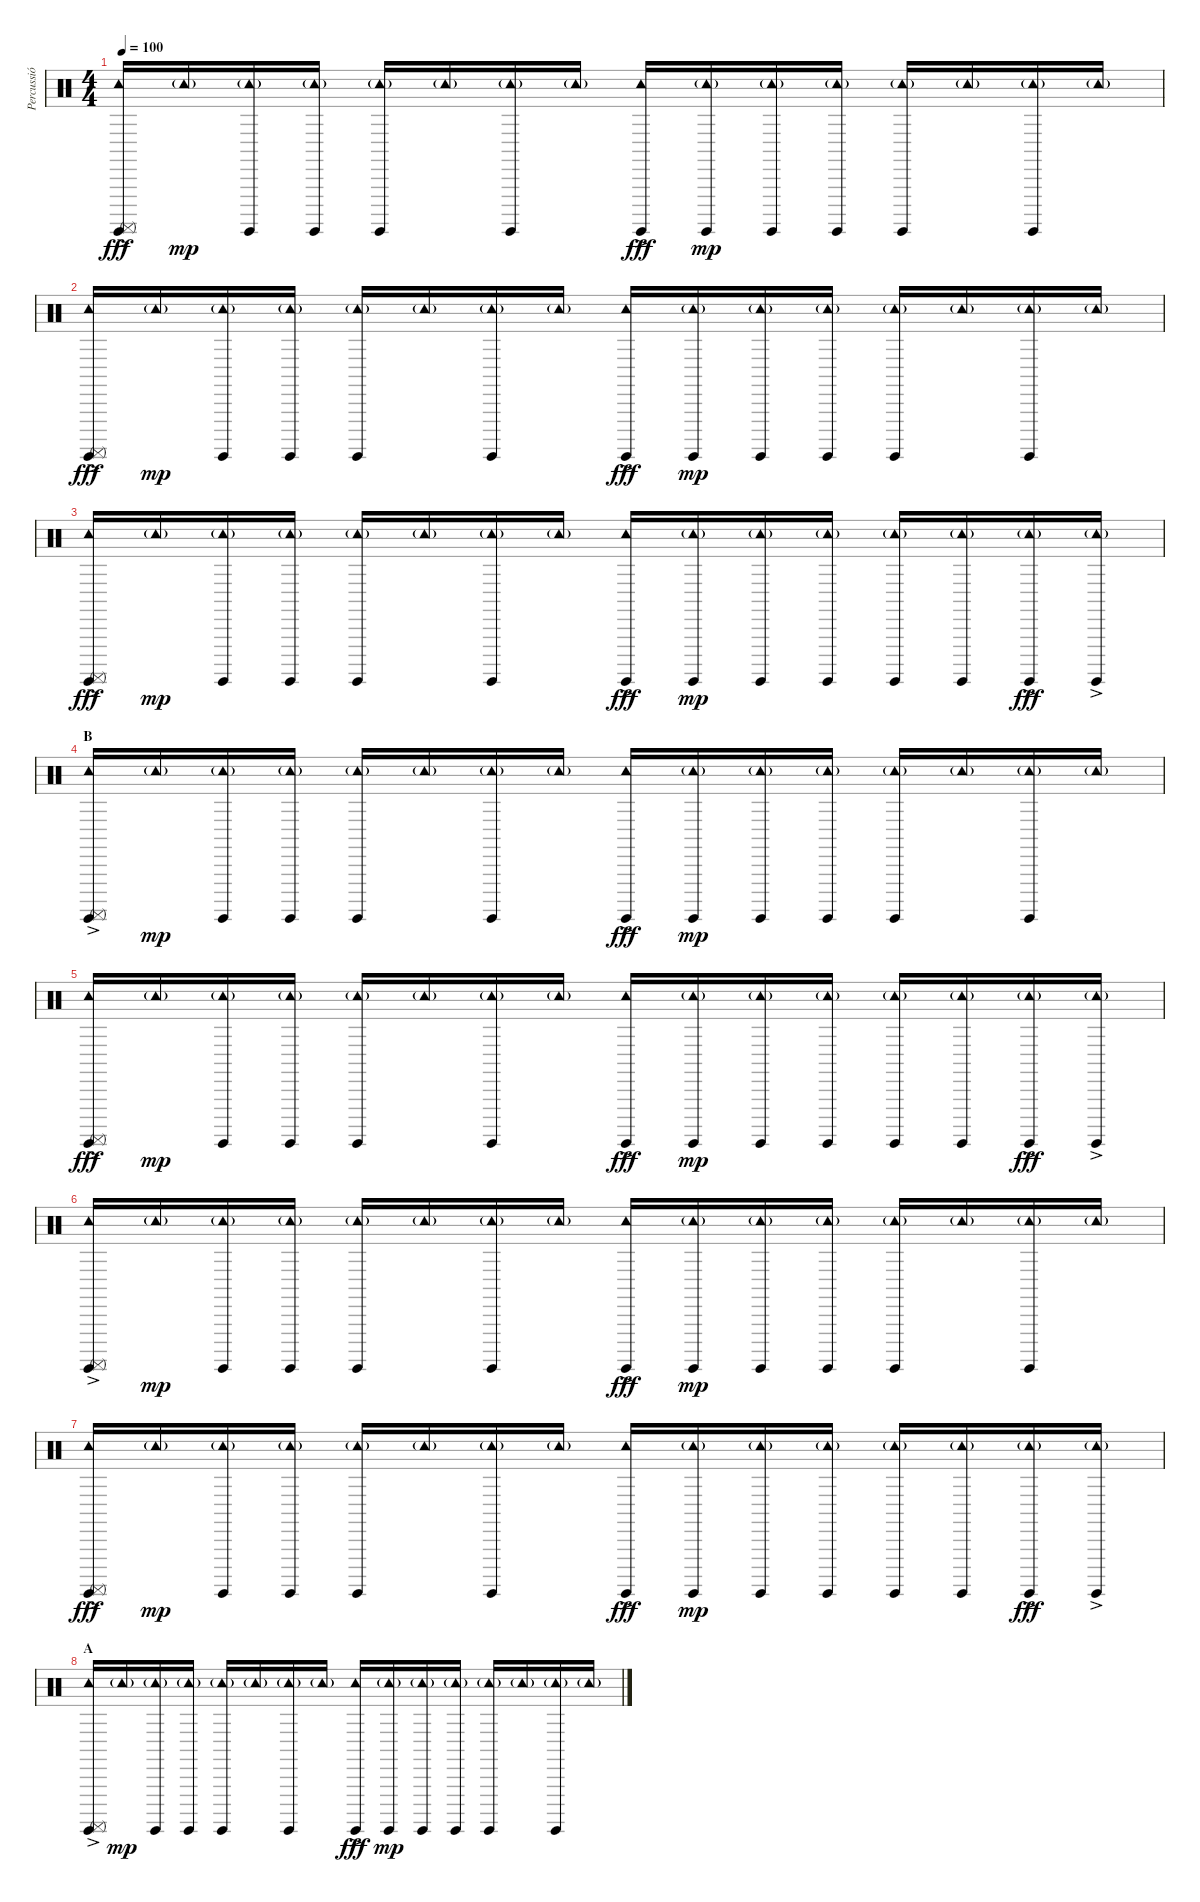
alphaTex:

\track ("Percussió" "Percussió") {instrument percussion}
\staff {score}
\articulation defaults
\ts (4 4)
\tempo 100
\clef neutral
\ks c
("Tambourine (hit)"{ac} "Surdo (hit)" "Surdo (mute)"{ac}).16{dy fff} "Tambourine (hit)"{g}.16{dy mp} ("Tambourine (hit)"{g} "Surdo (hit)").16 ("Tambourine (hit)"{g} "Surdo (hit)").16 ("Tambourine (hit)"{g} "Surdo (hit)").16 "Tambourine (hit)"{g}.16 ("Tambourine (hit)"{g} "Surdo (hit)").16 "Tambourine (hit)"{g}.16 ("Tambourine (hit)"{ac} "Surdo (hit)"{ac}).16{dy fff} ("Tambourine (hit)"{g} "Surdo (hit)").16{dy mp} ("Tambourine (hit)"{g} "Surdo (hit)").16 ("Tambourine (hit)"{g} "Surdo (hit)").16 ("Tambourine (hit)"{g} "Surdo (hit)").16 "Tambourine (hit)"{g}.16 ("Tambourine (hit)"{g} "Surdo (hit)").16 "Tambourine (hit)"{g}.16 |
("Tambourine (hit)"{ac} "Surdo (hit)" "Surdo (mute)"{ac}).16{dy fff} "Tambourine (hit)"{g}.16{dy mp} ("Tambourine (hit)"{g} "Surdo (hit)").16 ("Tambourine (hit)"{g} "Surdo (hit)").16 ("Tambourine (hit)"{g} "Surdo (hit)").16 "Tambourine (hit)"{g}.16 ("Tambourine (hit)"{g} "Surdo (hit)").16 "Tambourine (hit)"{g}.16 ("Tambourine (hit)"{ac} "Surdo (hit)"{ac}).16{dy fff} ("Tambourine (hit)"{g} "Surdo (hit)").16{dy mp} ("Tambourine (hit)"{g} "Surdo (hit)").16 ("Tambourine (hit)"{g} "Surdo (hit)").16 ("Tambourine (hit)"{g} "Surdo (hit)").16 "Tambourine (hit)"{g}.16 ("Tambourine (hit)"{g} "Surdo (hit)").16 "Tambourine (hit)"{g}.16 |
("Tambourine (hit)"{ac} "Surdo (hit)" "Surdo (mute)"{ac}).16{dy fff} "Tambourine (hit)"{g}.16{dy mp} ("Tambourine (hit)"{g} "Surdo (hit)").16 ("Tambourine (hit)"{g} "Surdo (hit)").16 ("Tambourine (hit)"{g} "Surdo (hit)").16 "Tambourine (hit)"{g}.16 ("Tambourine (hit)"{g} "Surdo (hit)").16 "Tambourine (hit)"{g}.16 ("Tambourine (hit)"{ac} "Surdo (hit)"{ac}).16{dy fff} ("Tambourine (hit)"{g} "Surdo (hit)").16{dy mp} ("Tambourine (hit)"{g} "Surdo (hit)").16 ("Tambourine (hit)"{g} "Surdo (hit)").16 ("Tambourine (hit)"{g} "Surdo (hit)").16 ("Tambourine (hit)"{g} "Surdo (hit)").16 ("Tambourine (hit)"{g} "Surdo (hit)"{ac}).16{dy fff} ("Tambourine (hit)"{g} "Surdo (hit)"{ac}).16 |
\section ("" "B")
("Tambourine (hit)"{ac} "Surdo (hit)" "Surdo (mute)"{ac}).16 "Tambourine (hit)"{g}.16{dy mp} ("Tambourine (hit)"{g} "Surdo (hit)").16 ("Tambourine (hit)"{g} "Surdo (hit)").16 ("Tambourine (hit)"{g} "Surdo (hit)").16 "Tambourine (hit)"{g}.16 ("Tambourine (hit)"{g} "Surdo (hit)").16 "Tambourine (hit)"{g}.16 ("Tambourine (hit)"{ac} "Surdo (hit)"{ac}).16{dy fff} ("Tambourine (hit)"{g} "Surdo (hit)").16{dy mp} ("Tambourine (hit)"{g} "Surdo (hit)").16 ("Tambourine (hit)"{g} "Surdo (hit)").16 ("Tambourine (hit)"{g} "Surdo (hit)").16 "Tambourine (hit)"{g}.16 ("Tambourine (hit)"{g} "Surdo (hit)").16 "Tambourine (hit)"{g}.16 |
("Tambourine (hit)"{ac} "Surdo (hit)" "Surdo (mute)"{ac}).16{dy fff} "Tambourine (hit)"{g}.16{dy mp} ("Tambourine (hit)"{g} "Surdo (hit)").16 ("Tambourine (hit)"{g} "Surdo (hit)").16 ("Tambourine (hit)"{g} "Surdo (hit)").16 "Tambourine (hit)"{g}.16 ("Tambourine (hit)"{g} "Surdo (hit)").16 "Tambourine (hit)"{g}.16 ("Tambourine (hit)"{ac} "Surdo (hit)"{ac}).16{dy fff} ("Tambourine (hit)"{g} "Surdo (hit)").16{dy mp} ("Tambourine (hit)"{g} "Surdo (hit)").16 ("Tambourine (hit)"{g} "Surdo (hit)").16 ("Tambourine (hit)"{g} "Surdo (hit)").16 ("Tambourine (hit)"{g} "Surdo (hit)").16 ("Tambourine (hit)"{g} "Surdo (hit)"{ac}).16{dy fff} ("Tambourine (hit)"{g} "Surdo (hit)"{ac}).16 |
("Tambourine (hit)"{ac} "Surdo (hit)" "Surdo (mute)"{ac}).16 "Tambourine (hit)"{g}.16{dy mp} ("Tambourine (hit)"{g} "Surdo (hit)").16 ("Tambourine (hit)"{g} "Surdo (hit)").16 ("Tambourine (hit)"{g} "Surdo (hit)").16 "Tambourine (hit)"{g}.16 ("Tambourine (hit)"{g} "Surdo (hit)").16 "Tambourine (hit)"{g}.16 ("Tambourine (hit)"{ac} "Surdo (hit)"{ac}).16{dy fff} ("Tambourine (hit)"{g} "Surdo (hit)").16{dy mp} ("Tambourine (hit)"{g} "Surdo (hit)").16 ("Tambourine (hit)"{g} "Surdo (hit)").16 ("Tambourine (hit)"{g} "Surdo (hit)").16 "Tambourine (hit)"{g}.16 ("Tambourine (hit)"{g} "Surdo (hit)").16 "Tambourine (hit)"{g}.16 |
("Tambourine (hit)"{ac} "Surdo (hit)" "Surdo (mute)"{ac}).16{dy fff} "Tambourine (hit)"{g}.16{dy mp} ("Tambourine (hit)"{g} "Surdo (hit)").16 ("Tambourine (hit)"{g} "Surdo (hit)").16 ("Tambourine (hit)"{g} "Surdo (hit)").16 "Tambourine (hit)"{g}.16 ("Tambourine (hit)"{g} "Surdo (hit)").16 "Tambourine (hit)"{g}.16 ("Tambourine (hit)"{ac} "Surdo (hit)"{ac}).16{dy fff} ("Tambourine (hit)"{g} "Surdo (hit)").16{dy mp} ("Tambourine (hit)"{g} "Surdo (hit)").16 ("Tambourine (hit)"{g} "Surdo (hit)").16 ("Tambourine (hit)"{g} "Surdo (hit)").16 ("Tambourine (hit)"{g} "Surdo (hit)").16 ("Tambourine (hit)"{g} "Surdo (hit)"{ac}).16{dy fff} ("Tambourine (hit)"{g} "Surdo (hit)"{ac}).16 |
\section ("" "A")
("Tambourine (hit)"{ac} "Surdo (hit)" "Surdo (mute)"{ac}).16 "Tambourine (hit)"{g}.16{dy mp} ("Tambourine (hit)"{g} "Surdo (hit)").16 ("Tambourine (hit)"{g} "Surdo (hit)").16 ("Tambourine (hit)"{g} "Surdo (hit)").16 "Tambourine (hit)"{g}.16 ("Tambourine (hit)"{g} "Surdo (hit)").16 "Tambourine (hit)"{g}.16 ("Tambourine (hit)"{ac} "Surdo (hit)"{ac}).16{dy fff} ("Tambourine (hit)"{g} "Surdo (hit)").16{dy mp} ("Tambourine (hit)"{g} "Surdo (hit)").16 ("Tambourine (hit)"{g} "Surdo (hit)").16 ("Tambourine (hit)"{g} "Surdo (hit)").16 "Tambourine (hit)"{g}.16 ("Tambourine (hit)"{g} "Surdo (hit)").16 "Tambourine (hit)"{g}.16
